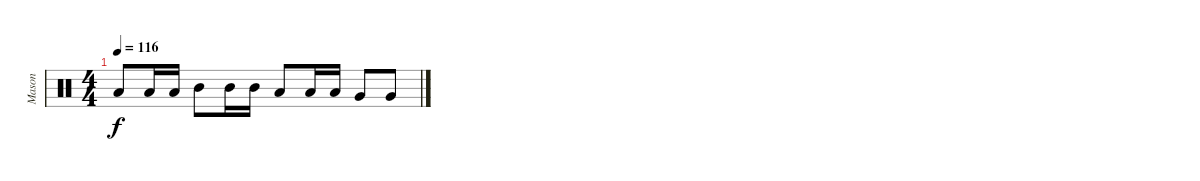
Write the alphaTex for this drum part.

\track ("Mason" "Mason") {instrument percussion}
\staff {score}
\articulation defaults
\ts (4 4)
\tempo 116
\clef neutral
\ks c "Low Tom (hit)".8{dy f} "Low Tom (hit)".16 "Low Tom (hit)".16 "Mid Tom (hit)".8 "Mid Tom (hit)".16 "Mid Tom (hit)".16 "Low Floor Tom (hit)".8 "Low Floor Tom (hit)".16 "Low Floor Tom (hit)".16 "Very Low Tom (hit)".8 "Very Low Tom (hit)".8
